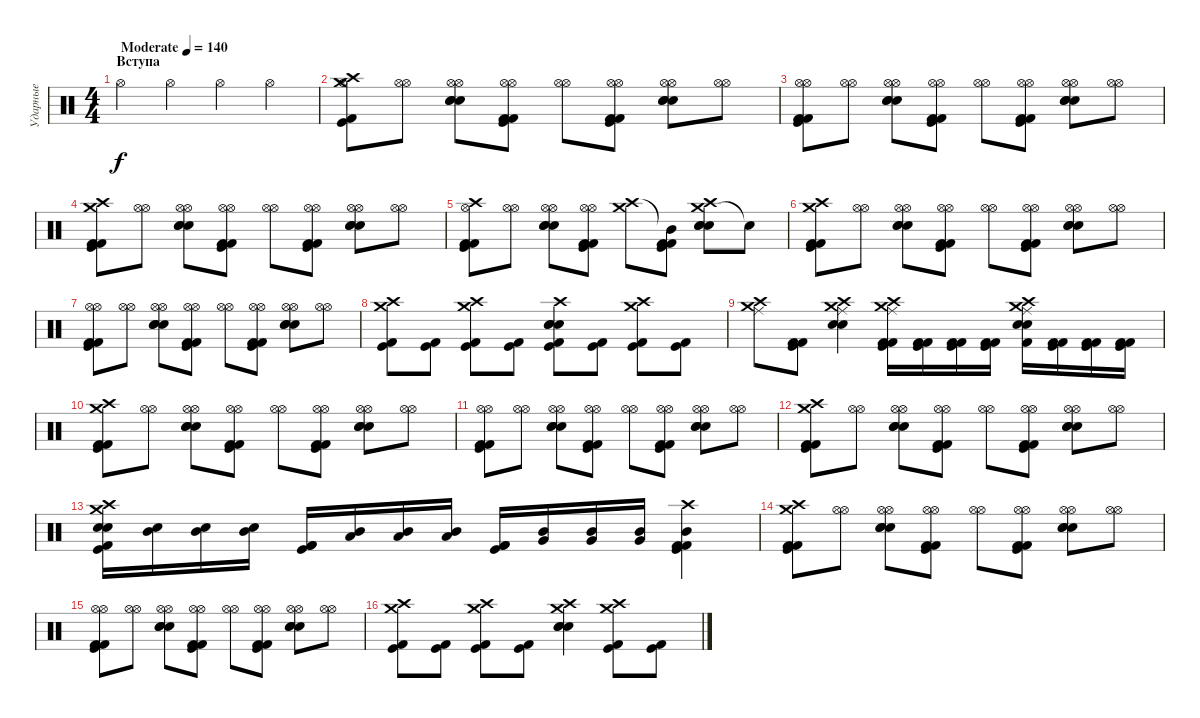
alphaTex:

\track ("Ударные" "Ударные") {instrument percussion}
\staff {score}
\articulation defaults
\ts (4 4)
\section ("" "Вступа")
\tempo (140 "Moderate")
\clef neutral
\ks c "Hi-Hat (open)".4{dy f} "Hi-Hat (open)".4 "Hi-Hat (open)".4 "Hi-Hat (open)".4
|
("Crash high (hit)" "Crash medium (hit)" "Hi-Hat (open)" "Kick (hit)" "Kick (hit) 2").8 ("Hi-Hat (open)" "Hi-Hat (open)").8 ("Hi-Hat (open)" "Hi-Hat (open)" "Electric Snare (hit)" "Snare (hit) 2" "Electric Snare (hit)").8 ("Hi-Hat (open)" "Hi-Hat (open)" "Kick (hit) 2" "Kick (hit)" "Kick (hit) 2").8 ("Hi-Hat (open)" "Hi-Hat (open)").8 ("Hi-Hat (open)" "Hi-Hat (open)" "Kick (hit) 2" "Kick (hit)" "Kick (hit) 2").8 ("Hi-Hat (open)" "Hi-Hat (open)" "Electric Snare (hit)" "Snare (hit) 2" "Electric Snare (hit)").8 ("Hi-Hat (open)" "Hi-Hat (open)").8 |
("Hi-Hat (open)" "Hi-Hat (open)" "Kick (hit) 2" "Kick (hit)" "Kick (hit) 2").8 ("Hi-Hat (open)" "Hi-Hat (open)").8 ("Hi-Hat (open)" "Hi-Hat (open)" "Electric Snare (hit)" "Snare (hit) 2" "Electric Snare (hit)").8 ("Hi-Hat (open)" "Hi-Hat (open)" "Kick (hit) 2" "Kick (hit)" "Kick (hit) 2").8 ("Hi-Hat (open)" "Hi-Hat (open)").8 ("Hi-Hat (open)" "Hi-Hat (open)" "Kick (hit) 2" "Kick (hit)" "Kick (hit) 2").8 ("Hi-Hat (open)" "Hi-Hat (open)" "Electric Snare (hit)" "Snare (hit) 2" "Electric Snare (hit)").8 ("Hi-Hat (open)" "Hi-Hat (open)").8 |
("Crash high (hit)" "Crash medium (hit)" "Kick (hit) 2" "Kick (hit)" "Kick (hit) 2").8 ("Hi-Hat (open)" "Hi-Hat (open)").8 ("Hi-Hat (open)" "Hi-Hat (open)" "Electric Snare (hit)" "Snare (hit) 2" "Electric Snare (hit)").8 ("Hi-Hat (open)" "Hi-Hat (open)" "Kick (hit) 2" "Kick (hit)" "Kick (hit) 2").8 ("Hi-Hat (open)" "Hi-Hat (open)").8 ("Hi-Hat (open)" "Hi-Hat (open)" "Kick (hit) 2" "Kick (hit)" "Kick (hit) 2").8 ("Hi-Hat (open)" "Hi-Hat (open)" "Electric Snare (hit)" "Snare (hit) 2" "Electric Snare (hit)").8 ("Hi-Hat (open)" "Hi-Hat (open)").8 |
("Crash high (hit)" "Hi-Hat (open)" "Kick (hit) 2" "Kick (hit)" "Kick (hit) 2").8 ("Hi-Hat (open)" "Hi-Hat (open)").8 ("Hi-Hat (open)" "Hi-Hat (open)" "Electric Snare (hit)" "Snare (hit) 2" "Electric Snare (hit)").8 ("Hi-Hat (open)" "Hi-Hat (open)" "Kick (hit) 2" "Kick (hit)" "Kick (hit) 2").8 ("Crash high (hit)" "Crash medium (hit)").8 ("Mid Tom (hit)"{t} "Kick (hit) 2" "Kick (hit)" "Kick (hit) 2").8 ("Crash medium (hit)" "Crash high (hit)" "Electric Snare (hit)" "Snare (hit) 2" "Electric Snare (hit)").8 "Snare (hit)"{t}.8 |
("Crash high (hit)" "Crash medium (hit)" "Kick (hit) 2" "Kick (hit)" "Kick (hit) 2").8 ("Hi-Hat (open)" "Hi-Hat (open)").8 ("Hi-Hat (open)" "Hi-Hat (open)" "Electric Snare (hit)" "Snare (hit) 2" "Electric Snare (hit)").8 ("Hi-Hat (open)" "Hi-Hat (open)" "Kick (hit) 2" "Kick (hit)" "Kick (hit) 2").8 ("Hi-Hat (open)" "Hi-Hat (open)").8 ("Hi-Hat (open)" "Hi-Hat (open)" "Kick (hit) 2" "Kick (hit)" "Kick (hit) 2").8 ("Hi-Hat (open)" "Hi-Hat (open)" "Electric Snare (hit)" "Snare (hit) 2" "Electric Snare (hit)").8 ("Hi-Hat (open)" "Hi-Hat (open)").8 |
("Hi-Hat (open)" "Hi-Hat (open)" "Kick (hit) 2" "Kick (hit)" "Kick (hit) 2").8 ("Hi-Hat (open)" "Hi-Hat (open)").8 ("Hi-Hat (open)" "Hi-Hat (open)" "Electric Snare (hit)" "Snare (hit) 2" "Electric Snare (hit)").8 ("Hi-Hat (open)" "Hi-Hat (open)" "Kick (hit) 2" "Kick (hit)" "Kick (hit) 2").8 ("Hi-Hat (open)" "Hi-Hat (open)").8 ("Hi-Hat (open)" "Hi-Hat (open)" "Kick (hit) 2" "Kick (hit)" "Kick (hit) 2").8 ("Hi-Hat (open)" "Hi-Hat (open)" "Electric Snare (hit)" "Snare (hit) 2" "Electric Snare (hit)").8 ("Hi-Hat (open)" "Hi-Hat (open)").8 |
("Crash high (hit)" "Crash medium (hit)" "Kick (hit)" "Kick (hit) 2").8 ("Kick (hit)" "Kick (hit) 2").8 ("Crash high (hit)" "Crash medium (hit)" "Kick (hit)" "Kick (hit) 2").8 ("Kick (hit)" "Kick (hit) 2").8 ("Crash high (hit)" "Electric Snare (hit)" "Snare (hit) 2" "Electric Snare (hit)" "Kick (hit)" "Kick (hit) 2").8 ("Kick (hit)" "Kick (hit) 2").8 ("Crash high (hit)" "Crash medium (hit)" "Kick (hit)" "Kick (hit) 2").8 ("Kick (hit)" "Kick (hit) 2").8 |
("Crash high (hit)" "Crash medium (hit)" "Ride (middle)").8 ("Kick (hit) 2" "Kick (hit)" "Kick (hit) 2").8 ("Crash high (hit)" "Crash medium (hit)" "Ride (middle)" "Electric Snare (hit)" "Snare (hit) 2").4 ("Crash high (hit)" "Crash medium (hit)" "Ride (middle)" "Kick (hit) 2" "Kick (hit)" "Kick (hit) 2").16 ("Kick (hit) 2" "Kick (hit)" "Kick (hit) 2").16 ("Kick (hit) 2" "Kick (hit)" "Kick (hit) 2").16 ("Kick (hit) 2" "Kick (hit)" "Kick (hit) 2").16 ("Crash high (hit)" "Crash medium (hit)" "Ride (middle)" "Electric Snare (hit)" "Snare (hit) 2" "Kick (hit) 2").16 ("Kick (hit) 2" "Kick (hit)" "Kick (hit) 2").16 ("Kick (hit) 2" "Kick (hit)" "Kick (hit) 2").16 ("Kick (hit) 2" "Kick (hit)" "Kick (hit) 2").16 |
("Crash high (hit)" "Crash medium (hit)" "Kick (hit) 2" "Kick (hit)" "Kick (hit) 2").8 ("Hi-Hat (open)" "Hi-Hat (open)").8 ("Hi-Hat (open)" "Hi-Hat (open)" "Electric Snare (hit)" "Snare (hit) 2" "Electric Snare (hit)").8 ("Hi-Hat (open)" "Hi-Hat (open)" "Kick (hit) 2" "Kick (hit)" "Kick (hit) 2").8 ("Hi-Hat (open)" "Hi-Hat (open)").8 ("Hi-Hat (open)" "Hi-Hat (open)" "Kick (hit) 2" "Kick (hit)" "Kick (hit) 2").8 ("Hi-Hat (open)" "Hi-Hat (open)" "Electric Snare (hit)" "Snare (hit) 2" "Electric Snare (hit)").8 ("Hi-Hat (open)" "Hi-Hat (open)").8 |
("Hi-Hat (open)" "Hi-Hat (open)" "Kick (hit) 2" "Kick (hit)" "Kick (hit) 2").8 ("Hi-Hat (open)" "Hi-Hat (open)").8 ("Hi-Hat (open)" "Hi-Hat (open)" "Electric Snare (hit)" "Snare (hit) 2" "Electric Snare (hit)").8 ("Hi-Hat (open)" "Hi-Hat (open)" "Kick (hit) 2" "Kick (hit)" "Kick (hit) 2").8 ("Hi-Hat (open)" "Hi-Hat (open)").8 ("Hi-Hat (open)" "Hi-Hat (open)" "Kick (hit) 2" "Kick (hit)" "Kick (hit) 2").8 ("Hi-Hat (open)" "Hi-Hat (open)" "Electric Snare (hit)" "Snare (hit) 2" "Electric Snare (hit)").8 ("Hi-Hat (open)" "Hi-Hat (open)").8 |
("Crash high (hit)" "Crash medium (hit)" "Kick (hit) 2" "Kick (hit)" "Kick (hit) 2").8 ("Hi-Hat (open)" "Hi-Hat (open)").8 ("Hi-Hat (open)" "Hi-Hat (open)" "Electric Snare (hit)" "Snare (hit) 2" "Electric Snare (hit)").8 ("Hi-Hat (open)" "Hi-Hat (open)" "Kick (hit) 2" "Kick (hit)" "Kick (hit) 2").8 ("Hi-Hat (open)" "Hi-Hat (open)").8 ("Hi-Hat (open)" "Hi-Hat (open)" "Kick (hit) 2" "Kick (hit)" "Kick (hit) 2").8 ("Hi-Hat (open)" "Hi-Hat (open)" "Electric Snare (hit)" "Snare (hit) 2" "Electric Snare (hit)").8 ("Hi-Hat (open)" "Hi-Hat (open)").8 |
("Crash high (hit)" "Crash medium (hit)" "Electric Snare (hit)" "Snare (hit) 2" "Kick (hit)" "Kick (hit) 2").16 ("Mid Tom (hit)" "Snare (hit) 2").16 ("Mid Tom (hit)" "Snare (hit) 2").16 ("Mid Tom (hit)" "Snare (hit) 2").16 ("Kick (hit) 2" "Kick (hit)" "Kick (hit) 2").16 ("Low Tom (hit)" "Mid Tom (hit)").16 ("Low Tom (hit)" "Mid Tom (hit)").16 ("Low Tom (hit)" "Mid Tom (hit)").16 ("Kick (hit) 2" "Kick (hit)" "Kick (hit) 2").16 ("Very Low Tom (hit)" "Mid Tom (hit)").16 ("Very Low Tom (hit)" "Mid Tom (hit)").16 ("Very Low Tom (hit)" "Mid Tom (hit)").16 ("Crash high (hit)" "Mid Tom (hit)" "Kick (hit) 2" "Kick (hit)" "Kick (hit) 2").4 |
("Crash high (hit)" "Crash medium (hit)" "Kick (hit) 2" "Kick (hit)" "Kick (hit) 2").8 ("Hi-Hat (open)" "Hi-Hat (open)").8 ("Hi-Hat (open)" "Hi-Hat (open)" "Electric Snare (hit)" "Snare (hit) 2" "Electric Snare (hit)").8 ("Hi-Hat (open)" "Hi-Hat (open)" "Kick (hit) 2" "Kick (hit)" "Kick (hit) 2").8 ("Hi-Hat (open)" "Hi-Hat (open)").8 ("Hi-Hat (open)" "Hi-Hat (open)" "Kick (hit) 2" "Kick (hit)" "Kick (hit) 2").8 ("Hi-Hat (open)" "Hi-Hat (open)" "Electric Snare (hit)" "Snare (hit) 2" "Electric Snare (hit)").8 ("Hi-Hat (open)" "Hi-Hat (open)").8 |
("Hi-Hat (open)" "Hi-Hat (open)" "Kick (hit) 2" "Kick (hit)" "Kick (hit) 2").8 ("Hi-Hat (open)" "Hi-Hat (open)").8 ("Hi-Hat (open)" "Hi-Hat (open)" "Electric Snare (hit)" "Snare (hit) 2" "Electric Snare (hit)").8 ("Hi-Hat (open)" "Hi-Hat (open)" "Kick (hit) 2" "Kick (hit)" "Kick (hit) 2").8 ("Hi-Hat (open)" "Hi-Hat (open)").8 ("Hi-Hat (open)" "Hi-Hat (open)" "Kick (hit) 2" "Kick (hit)" "Kick (hit) 2").8 ("Hi-Hat (open)" "Hi-Hat (open)" "Electric Snare (hit)" "Snare (hit) 2" "Electric Snare (hit)").8 ("Hi-Hat (open)" "Hi-Hat (open)").8 |
("Crash high (hit)" "Crash medium (hit)" "Kick (hit)" "Kick (hit) 2").8 ("Kick (hit)" "Kick (hit) 2").8 ("Crash high (hit)" "Crash medium (hit)" "Kick (hit)" "Kick (hit) 2").8 ("Kick (hit)" "Kick (hit) 2").8 ("Crash high (hit)" "Crash medium (hit)" "Snare (hit) 2" "Electric Snare (hit)" "Electric Snare (hit)").4 ("Crash high (hit)" "Crash medium (hit)" "Kick (hit)" "Kick (hit) 2").8 ("Kick (hit)" "Kick (hit) 2").8
